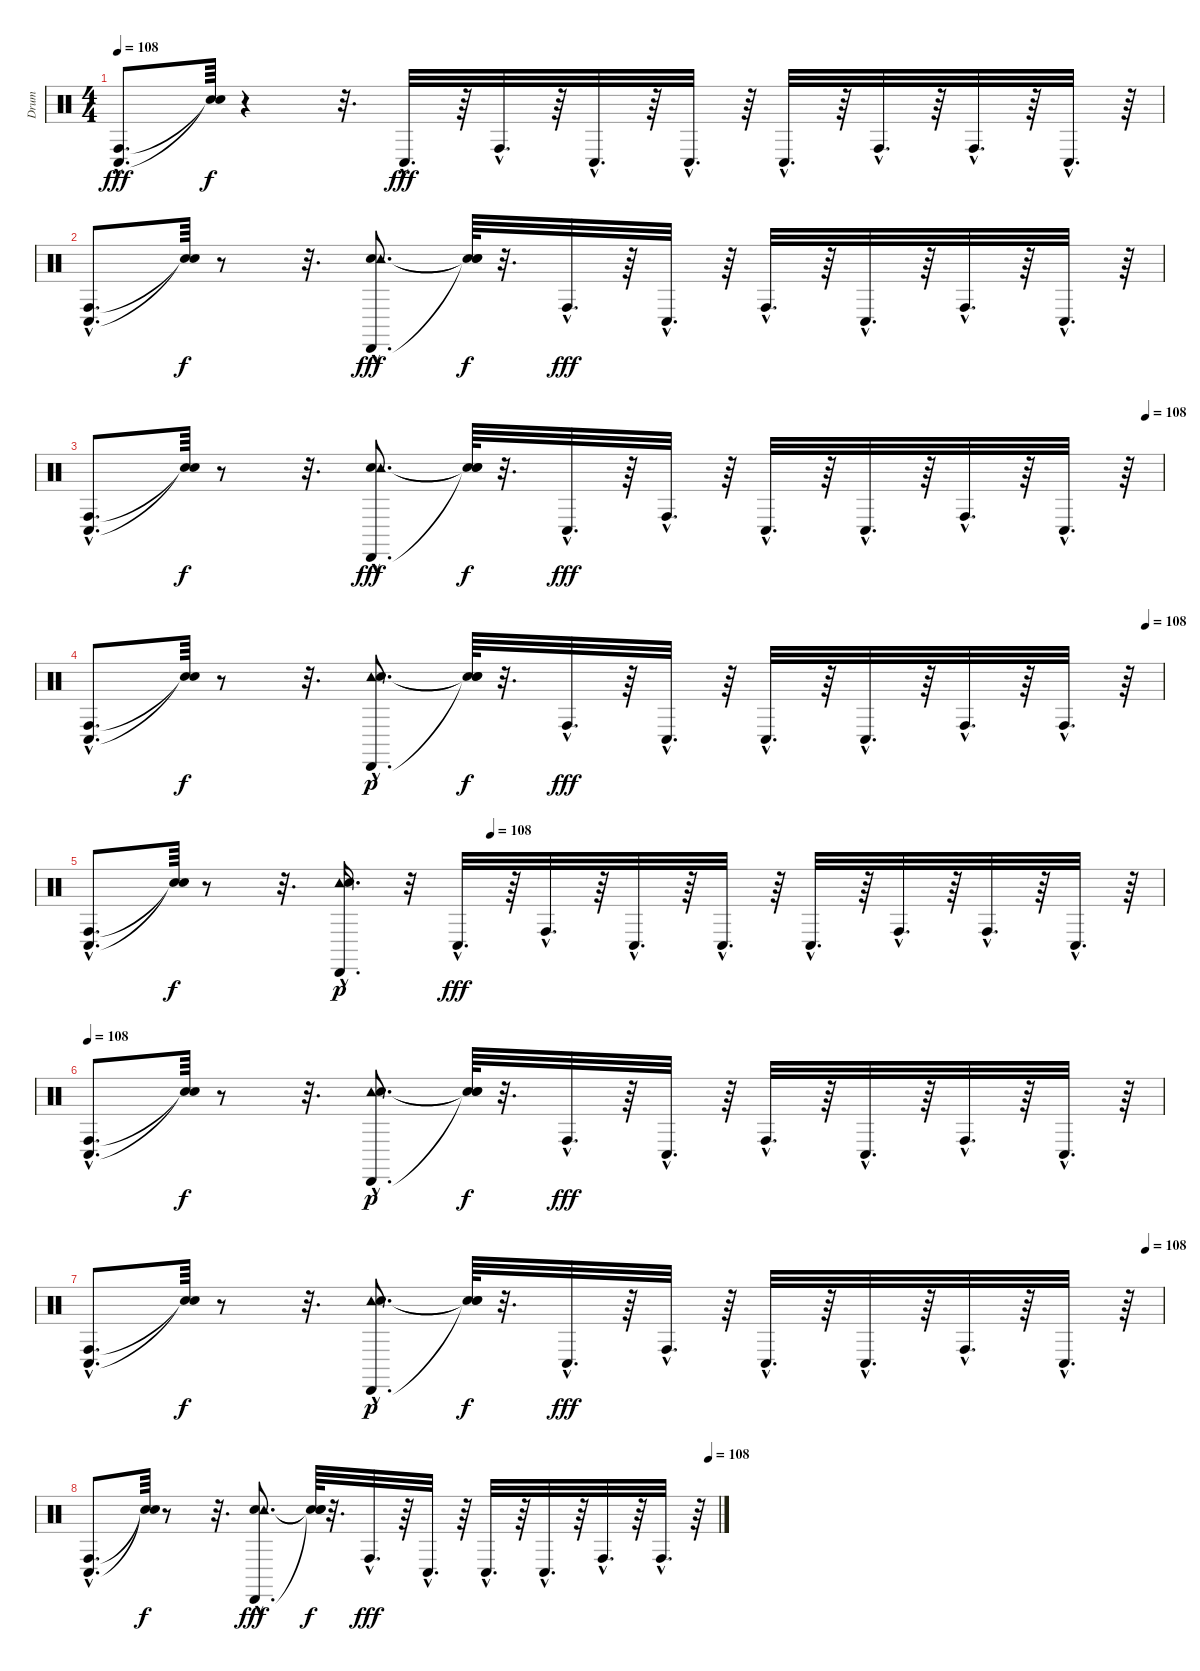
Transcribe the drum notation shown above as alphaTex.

\track ("Drum" "Drum") {instrument percussion}
\staff {score}
\articulation defaults
\ts (4 4)
\tempo 108
\clef neutral
\ks c
("Conga high (hit)"{hac} "Conga low (hit)"{hac}).8{d dy fff} ("Snare (hit)"{t} "Snare (hit)"{t}).64{dy f} r.4 r.32{d} "Conga low (hit)"{hac}.32{d dy fff} r.64 "Conga high (hit)"{hac}.32{d} r.64 "Conga low (hit)"{hac}.32{d} r.64 "Conga low (hit)"{hac}.32{d} r.64 "Conga low (hit)"{hac}.32{d} r.64 "Conga high (hit)"{hac}.32{d} r.64 "Conga high (hit)"{hac}.32{d} r.64 "Conga low (hit)"{hac}.32{d} r.64 |
("Conga low (hit)"{hac} "Conga high (hit)"{hac}).8{d} ("Snare (hit)"{t} "Snare (hit)"{t}).64{dy f} r.8 r.32{d} ("Snare (hit) 2"{hac} "Tambourine (hit)"{hac} "Cabasa (hit)"{hac}).8{d dy fff} ("Snare (hit)"{t} "Snare (hit)"{t} "Snare (hit)"{t}).64{dy f} r.32{d} "Conga high (hit)"{hac}.32{d dy fff} r.64 "Conga low (hit)"{hac}.32{d} r.64 "Conga high (hit)"{hac}.32{d} r.64 "Conga low (hit)"{hac}.32{d} r.64 "Conga high (hit)"{hac}.32{d} r.64 "Conga low (hit)"{hac}.32{d} r.64 |
\tempo (108 0.984375)
("Conga low (hit)"{hac} "Conga high (hit)"{hac}).8{d} ("Snare (hit)"{t} "Snare (hit)"{t}).64{dy f} r.8 r.32{d} ("Snare (hit) 2"{hac} "Tambourine (hit)"{hac} "Cabasa (hit)"{hac}).8{d dy fff} ("Snare (hit)"{t} "Snare (hit)"{t} "Snare (hit)"{t}).64{dy f} r.32{d} "Conga low (hit)"{hac}.32{d dy fff} r.64 "Conga high (hit)"{hac}.32{d} r.64 "Conga low (hit)"{hac}.32{d} r.64 "Conga low (hit)"{hac}.32{d} r.64 "Conga high (hit)"{hac}.32{d} r.64 "Conga low (hit)"{hac}.32{d} r.64 |
\tempo (108 0.984375)
("Conga high (hit)"{hac} "Conga low (hit)"{hac}).8{d} ("Snare (hit)"{t} "Snare (hit)"{t}).64{dy f} r.8 r.32{d} ("Cabasa (hit)"{hac} "Tambourine (hit)"{hac} "Snare (hit) 2"{hac}).8{d dy p} ("Snare (hit)"{t} "Snare (hit)"{t} "Snare (hit)"{t}).64{dy f} r.32{d} "Conga high (hit)"{hac}.32{d dy fff} r.64 "Conga low (hit)"{hac}.32{d} r.64 "Conga low (hit)"{hac}.32{d} r.64 "Conga low (hit)"{hac}.32{d} r.64 "Conga high (hit)"{hac}.32{d} r.64 "Conga high (hit)"{hac}.32{d} r.64 |
\tempo (108 0.375)
("Conga high (hit)"{hac} "Conga low (hit)"{hac}).8{d} ("Snare (hit)"{t} "Snare (hit)"{t}).64{dy f} r.8 r.32{d} ("Cabasa (hit)"{hac} "Tambourine (hit)"{hac} "Snare (hit) 2"{hac}).16{d dy p} r.32 "Conga low (hit)"{hac}.32{d dy fff} r.64 "Conga high (hit)"{hac}.32{d} r.64 "Conga low (hit)"{hac}.32{d} r.64 "Conga low (hit)"{hac}.32{d} r.64 "Conga low (hit)"{hac}.32{d} r.64 "Conga high (hit)"{hac}.32{d} r.64 "Conga high (hit)"{hac}.32{d} r.64 "Conga low (hit)"{hac}.32{d} r.64 |
\tempo 108
("Conga high (hit)"{hac} "Conga low (hit)"{hac}).8{d} ("Snare (hit)"{t} "Snare (hit)"{t}).64{dy f} r.8 r.32{d} ("Cabasa (hit)"{hac} "Tambourine (hit)"{hac} "Snare (hit) 2"{hac}).8{d dy p} ("Snare (hit)"{t} "Snare (hit)"{t} "Snare (hit)"{t}).64{dy f} r.32{d} "Conga high (hit)"{hac}.32{d dy fff} r.64 "Conga low (hit)"{hac}.32{d} r.64 "Conga high (hit)"{hac}.32{d} r.64 "Conga low (hit)"{hac}.32{d} r.64 "Conga high (hit)"{hac}.32{d} r.64 "Conga low (hit)"{hac}.32{d} r.64 |
\tempo (108 0.984375)
("Conga high (hit)"{hac} "Conga low (hit)"{hac}).8{d} ("Snare (hit)"{t} "Snare (hit)"{t}).64{dy f} r.8 r.32{d} ("Cabasa (hit)"{hac} "Tambourine (hit)"{hac} "Snare (hit) 2"{hac}).8{d dy p} ("Snare (hit)"{t} "Snare (hit)"{t} "Snare (hit)"{t}).64{dy f} r.32{d} "Conga low (hit)"{hac}.32{d dy fff} r.64 "Conga high (hit)"{hac}.32{d} r.64 "Conga low (hit)"{hac}.32{d} r.64 "Conga low (hit)"{hac}.32{d} r.64 "Conga high (hit)"{hac}.32{d} r.64 "Conga low (hit)"{hac}.32{d} r.64 |
\tempo (108 0.984375)
("Conga low (hit)"{hac} "Conga high (hit)"{hac}).8{d} ("Snare (hit)"{t} "Snare (hit)"{t}).64{dy f} r.8 r.32{d} ("Snare (hit) 2"{hac} "Tambourine (hit)"{hac} "Cabasa (hit)"{hac}).8{d dy fff} ("Snare (hit)"{t} "Snare (hit)"{t} "Snare (hit)"{t}).64{dy f} r.32{d} "Conga high (hit)"{hac}.32{d dy fff} r.64 "Conga low (hit)"{hac}.32{d} r.64 "Conga low (hit)"{hac}.32{d} r.64 "Conga low (hit)"{hac}.32{d} r.64 "Conga high (hit)"{hac}.32{d} r.64 "Conga high (hit)"{hac}.32{d} r.64
